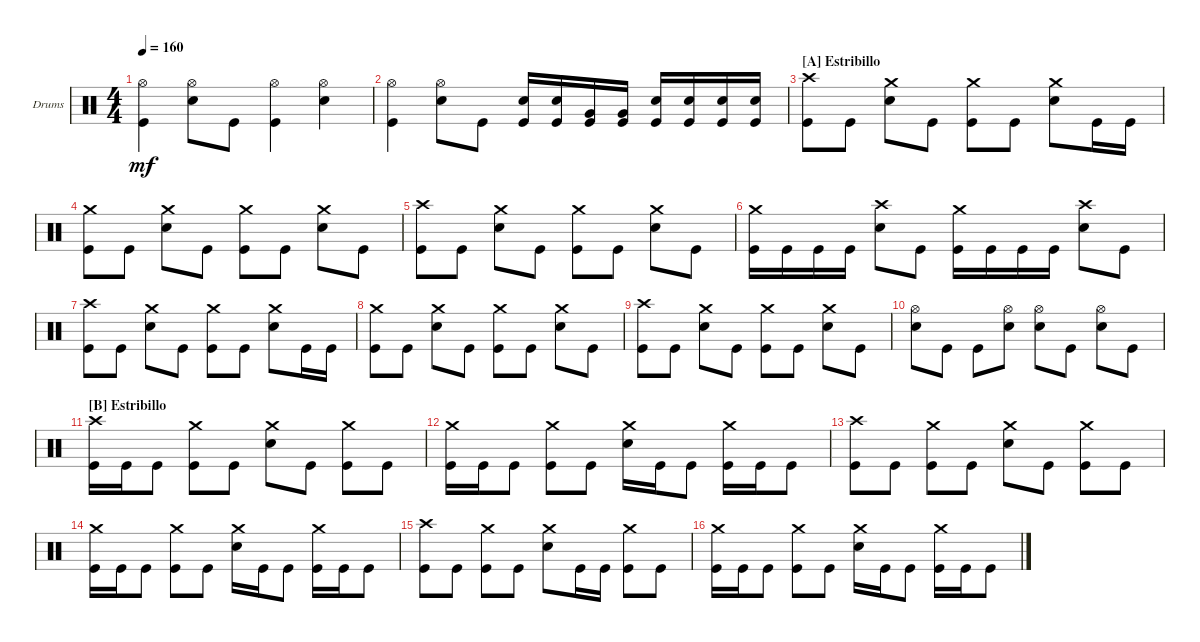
\bracketExtendMode groupsimilarinstruments
\firstSystemTrackNameOrientation horizontal
\otherSystemsTrackNameOrientation horizontal
\track ("Nick Augusto" "Drums") {instrument percussion}
\staff {score}
\articulation defaults
\ts (4 4)
\tempo 160
\clef neutral
\ks c
("Kick (hit)" "Hi-Hat (open)").4{dy mf} ("Snare (hit) 2" "Hi-Hat (open)").8 "Kick (hit)".8 ("Kick (hit)" "Hi-Hat (open)").4 ("Snare (hit) 2" "Hi-Hat (open)").4 |
("Kick (hit)" "Hi-Hat (open)").4 ("Snare (hit) 2" "Hi-Hat (open)").8 "Kick (hit)".8 ("Kick (hit)" "Snare (hit) 2").16 ("Kick (hit)" "Snare (hit) 2").16 ("Kick (hit)" "Very Low Tom (hit)").16 ("Kick (hit)" "Very Low Tom (hit)").16 ("Kick (hit)" "Snare (hit) 2").16 ("Kick (hit)" "Snare (hit) 2").16 ("Kick (hit)" "Snare (hit) 2").16 ("Kick (hit)" "Snare (hit) 2").16 |
\section ("A" "Estribillo")
("Kick (hit)" "Crash high (hit)").8 "Kick (hit)".8 ("Snare (hit) 2" "Crash medium (hit)").8 "Kick (hit)".8 ("Kick (hit)" "Crash medium (hit)").8 "Kick (hit)".8 ("Snare (hit) 2" "Crash medium (hit)").8 "Kick (hit)".16 "Kick (hit)".16 |
("Kick (hit)" "Crash medium (hit)").8 "Kick (hit)".8 ("Snare (hit) 2" "Crash medium (hit)").8 "Kick (hit)".8 ("Kick (hit)" "Crash medium (hit)").8 "Kick (hit)".8 ("Snare (hit) 2" "Crash medium (hit)").8 "Kick (hit)".8 |
("Kick (hit)" "Crash high (hit)").8 "Kick (hit)".8 ("Snare (hit) 2" "Crash medium (hit)").8 "Kick (hit)".8 ("Kick (hit)" "Crash medium (hit)").8 "Kick (hit)".8 ("Snare (hit) 2" "Crash medium (hit)").8 "Kick (hit)".8 |
("Kick (hit)" "Crash medium (hit)").16 "Kick (hit)".16 "Kick (hit)".16 "Kick (hit)".16 ("Snare (hit) 2" "Crash high (hit)").8 "Kick (hit)".8 ("Kick (hit)" "Crash medium (hit)").16 "Kick (hit)".16 "Kick (hit)".16 "Kick (hit)".16 ("Snare (hit) 2" "Crash high (hit)").8 "Kick (hit)".8 |
("Kick (hit)" "Crash high (hit)").8 "Kick (hit)".8 ("Snare (hit) 2" "Crash medium (hit)").8 "Kick (hit)".8 ("Kick (hit)" "Crash medium (hit)").8 "Kick (hit)".8 ("Snare (hit) 2" "Crash medium (hit)").8 "Kick (hit)".16 "Kick (hit)".16 |
("Kick (hit)" "Crash medium (hit)").8 "Kick (hit)".8 ("Snare (hit) 2" "Crash medium (hit)").8 "Kick (hit)".8 ("Kick (hit)" "Crash medium (hit)").8 "Kick (hit)".8 ("Snare (hit) 2" "Crash medium (hit)").8 "Kick (hit)".8 |
("Kick (hit)" "Crash high (hit)").8 "Kick (hit)".8 ("Snare (hit) 2" "Crash medium (hit)").8 "Kick (hit)".8 ("Kick (hit)" "Crash medium (hit)").8 "Kick (hit)".8 ("Snare (hit) 2" "Crash medium (hit)").8 "Kick (hit)".8 |
("Snare (hit) 2" "Hi-Hat (open)").8 "Kick (hit)".8 "Kick (hit)".8 ("Snare (hit) 2" "Hi-Hat (open)").8 ("Snare (hit) 2" "Hi-Hat (open)").8 "Kick (hit)".8 ("Snare (hit) 2" "Hi-Hat (open)").8 "Kick (hit)".8 |
\section ("B" "Estribillo")
("Kick (hit)" "Crash high (hit)").16 "Kick (hit)".16 "Kick (hit)".8 ("Crash medium (hit)" "Kick (hit)").8 "Kick (hit)".8 ("Crash medium (hit)" "Snare (hit) 2").8 "Kick (hit)".8 ("Crash medium (hit)" "Kick (hit)").8 "Kick (hit)".8 |
("Kick (hit)" "Crash medium (hit)").16 "Kick (hit)".16 "Kick (hit)".8 ("Crash medium (hit)" "Kick (hit)").8 "Kick (hit)".8 ("Crash medium (hit)" "Snare (hit) 2").16 "Kick (hit)".16 "Kick (hit)".8 ("Crash medium (hit)" "Kick (hit)").16 "Kick (hit)".16 "Kick (hit)".8 |
("Kick (hit)" "Crash high (hit)").8 "Kick (hit)".8 ("Crash medium (hit)" "Kick (hit)").8 "Kick (hit)".8 ("Crash medium (hit)" "Snare (hit) 2").8 "Kick (hit)".8 ("Crash medium (hit)" "Kick (hit)").8 "Kick (hit)".8 |
("Kick (hit)" "Crash medium (hit)").16 "Kick (hit)".16 "Kick (hit)".8 ("Crash medium (hit)" "Kick (hit)").8 "Kick (hit)".8 ("Crash medium (hit)" "Snare (hit) 2").16 "Kick (hit)".16 "Kick (hit)".8 ("Crash medium (hit)" "Kick (hit)").16 "Kick (hit)".16 "Kick (hit)".8 |
("Kick (hit)" "Crash high (hit)").8 "Kick (hit)".8 ("Crash medium (hit)" "Kick (hit)").8 "Kick (hit)".8 ("Crash medium (hit)" "Snare (hit) 2").8 "Kick (hit)".16 "Kick (hit)".16 ("Crash medium (hit)" "Kick (hit)").8 "Kick (hit)".8 |
("Kick (hit)" "Crash medium (hit)").16 "Kick (hit)".16 "Kick (hit)".8 ("Crash medium (hit)" "Kick (hit)").8 "Kick (hit)".8 ("Crash medium (hit)" "Snare (hit) 2").16 "Kick (hit)".16 "Kick (hit)".8 ("Crash medium (hit)" "Kick (hit)").16 "Kick (hit)".16 "Kick (hit)".8
